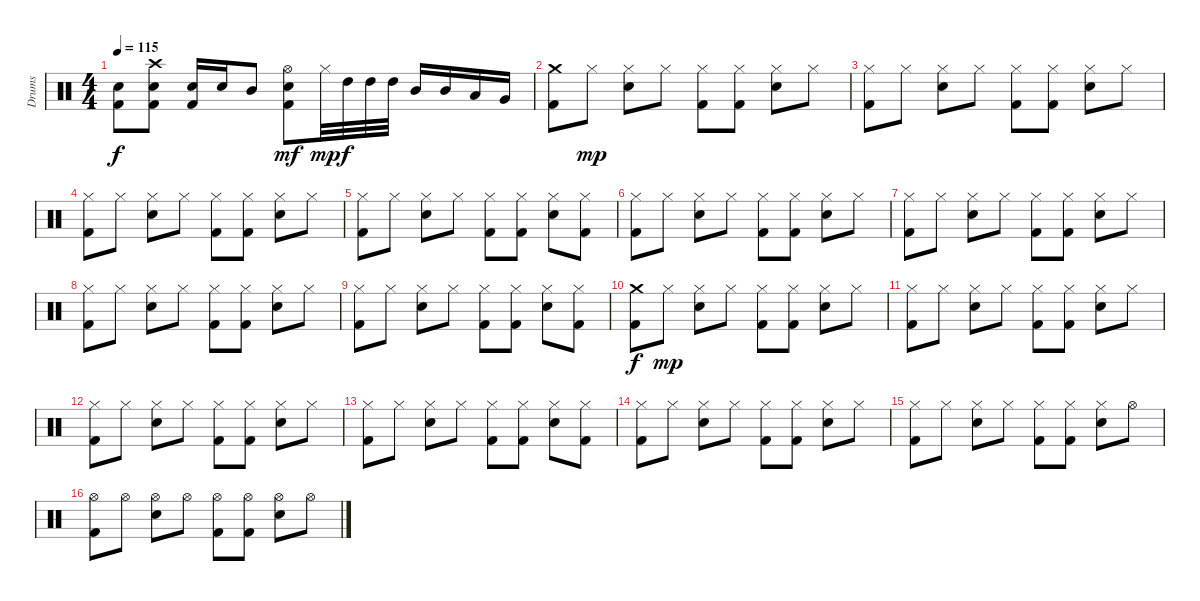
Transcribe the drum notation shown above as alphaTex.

\track ("Drums" "Drums") {instrument percussion}
\staff {score}
\articulation defaults
\ts (4 4)
\tempo 115
\clef neutral
\ks c
("Snare (hit) 2" "Kick (hit) 2").8{dy f} ("Crash high (hit)" "Snare (hit) 2" "Kick (hit) 2").8 ("Snare (hit) 2" "Kick (hit) 2").16 "Snare (hit) 2".16 "Mid Tom (hit)".8 ("Hi-Hat (open)" "Snare (hit) 2" "Kick (hit) 2").8{dy mf} "Hi-Hat (closed)".32{dy mp} "High Tom (hit)".32{dy f} "High Tom (hit)".32 "High Tom (hit)".32 "Mid Tom (hit)".16 "Mid Tom (hit)".16 "Low Tom (hit)".16 "Very Low Tom (hit)".16 |
("Crash medium (hit)" "Kick (hit) 2").8 "Hi-Hat (closed)".8{dy mp} ("Hi-Hat (closed)" "Snare (hit) 2").8 "Hi-Hat (closed)".8 ("Hi-Hat (closed)" "Kick (hit) 2").8 ("Hi-Hat (closed)" "Kick (hit) 2").8 ("Hi-Hat (closed)" "Snare (hit) 2").8 "Hi-Hat (closed)".8 |
("Hi-Hat (closed)" "Kick (hit) 2").8 "Hi-Hat (closed)".8 ("Hi-Hat (closed)" "Snare (hit) 2").8 "Hi-Hat (closed)".8 ("Hi-Hat (closed)" "Kick (hit) 2").8 ("Hi-Hat (closed)" "Kick (hit) 2").8 ("Hi-Hat (closed)" "Snare (hit) 2").8 "Hi-Hat (closed)".8 |
("Hi-Hat (closed)" "Kick (hit) 2").8 "Hi-Hat (closed)".8 ("Hi-Hat (closed)" "Snare (hit) 2").8 "Hi-Hat (closed)".8 ("Hi-Hat (closed)" "Kick (hit) 2").8 ("Hi-Hat (closed)" "Kick (hit) 2").8 ("Hi-Hat (closed)" "Snare (hit) 2").8 "Hi-Hat (closed)".8 |
("Hi-Hat (closed)" "Kick (hit) 2").8 "Hi-Hat (closed)".8 ("Hi-Hat (closed)" "Snare (hit) 2").8 "Hi-Hat (closed)".8 ("Hi-Hat (closed)" "Kick (hit) 2").8 ("Hi-Hat (closed)" "Kick (hit) 2").8 ("Hi-Hat (closed)" "Snare (hit) 2").8 ("Hi-Hat (closed)" "Kick (hit) 2").8 |
("Hi-Hat (closed)" "Kick (hit) 2").8 "Hi-Hat (closed)".8 ("Hi-Hat (closed)" "Snare (hit) 2").8 "Hi-Hat (closed)".8 ("Hi-Hat (closed)" "Kick (hit) 2").8 ("Hi-Hat (closed)" "Kick (hit) 2").8 ("Hi-Hat (closed)" "Snare (hit) 2").8 "Hi-Hat (closed)".8 |
("Hi-Hat (closed)" "Kick (hit) 2").8 "Hi-Hat (closed)".8 ("Hi-Hat (closed)" "Snare (hit) 2").8 "Hi-Hat (closed)".8 ("Hi-Hat (closed)" "Kick (hit) 2").8 ("Hi-Hat (closed)" "Kick (hit) 2").8 ("Hi-Hat (closed)" "Snare (hit) 2").8 "Hi-Hat (closed)".8 |
("Hi-Hat (closed)" "Kick (hit) 2").8 "Hi-Hat (closed)".8 ("Hi-Hat (closed)" "Snare (hit) 2").8 "Hi-Hat (closed)".8 ("Hi-Hat (closed)" "Kick (hit) 2").8 ("Hi-Hat (closed)" "Kick (hit) 2").8 ("Hi-Hat (closed)" "Snare (hit) 2").8 "Hi-Hat (closed)".8 |
("Hi-Hat (closed)" "Kick (hit) 2").8 "Hi-Hat (closed)".8 ("Hi-Hat (closed)" "Snare (hit) 2").8 "Hi-Hat (closed)".8 ("Hi-Hat (closed)" "Kick (hit) 2").8 ("Hi-Hat (closed)" "Kick (hit) 2").8 ("Hi-Hat (closed)" "Snare (hit) 2").8 ("Hi-Hat (closed)" "Kick (hit) 2").8 |
("Crash medium (hit)" "Kick (hit) 2").8{dy f} "Hi-Hat (closed)".8{dy mp} ("Hi-Hat (closed)" "Snare (hit) 2").8 "Hi-Hat (closed)".8 ("Hi-Hat (closed)" "Kick (hit) 2").8 ("Hi-Hat (closed)" "Kick (hit) 2").8 ("Hi-Hat (closed)" "Snare (hit) 2").8 "Hi-Hat (closed)".8 |
("Hi-Hat (closed)" "Kick (hit) 2").8 "Hi-Hat (closed)".8 ("Hi-Hat (closed)" "Snare (hit) 2").8 "Hi-Hat (closed)".8 ("Hi-Hat (closed)" "Kick (hit) 2").8 ("Hi-Hat (closed)" "Kick (hit) 2").8 ("Hi-Hat (closed)" "Snare (hit) 2").8 "Hi-Hat (closed)".8 |
("Hi-Hat (closed)" "Kick (hit) 2").8 "Hi-Hat (closed)".8 ("Hi-Hat (closed)" "Snare (hit) 2").8 "Hi-Hat (closed)".8 ("Hi-Hat (closed)" "Kick (hit) 2").8 ("Hi-Hat (closed)" "Kick (hit) 2").8 ("Hi-Hat (closed)" "Snare (hit) 2").8 "Hi-Hat (closed)".8 |
("Hi-Hat (closed)" "Kick (hit) 2").8 "Hi-Hat (closed)".8 ("Hi-Hat (closed)" "Snare (hit) 2").8 "Hi-Hat (closed)".8 ("Hi-Hat (closed)" "Kick (hit) 2").8 ("Hi-Hat (closed)" "Kick (hit) 2").8 ("Hi-Hat (closed)" "Snare (hit) 2").8 ("Hi-Hat (closed)" "Kick (hit) 2").8 |
("Hi-Hat (closed)" "Kick (hit) 2").8 "Hi-Hat (closed)".8 ("Hi-Hat (closed)" "Snare (hit) 2").8 "Hi-Hat (closed)".8 ("Hi-Hat (closed)" "Kick (hit) 2").8 ("Hi-Hat (closed)" "Kick (hit) 2").8 ("Hi-Hat (closed)" "Snare (hit) 2").8 "Hi-Hat (closed)".8 |
("Hi-Hat (closed)" "Kick (hit) 2").8 "Hi-Hat (closed)".8 ("Hi-Hat (closed)" "Snare (hit) 2").8 "Hi-Hat (closed)".8 ("Hi-Hat (closed)" "Kick (hit) 2").8 ("Hi-Hat (closed)" "Kick (hit) 2").8 ("Hi-Hat (closed)" "Snare (hit) 2").8 "Hi-Hat (open)".8 |
("Hi-Hat (open)" "Kick (hit) 2").8 "Hi-Hat (open)".8 ("Hi-Hat (open)" "Snare (hit) 2").8 "Hi-Hat (open)".8 ("Hi-Hat (open)" "Kick (hit) 2").8 ("Hi-Hat (open)" "Kick (hit) 2").8 ("Hi-Hat (open)" "Snare (hit) 2").8 "Hi-Hat (open)".8
